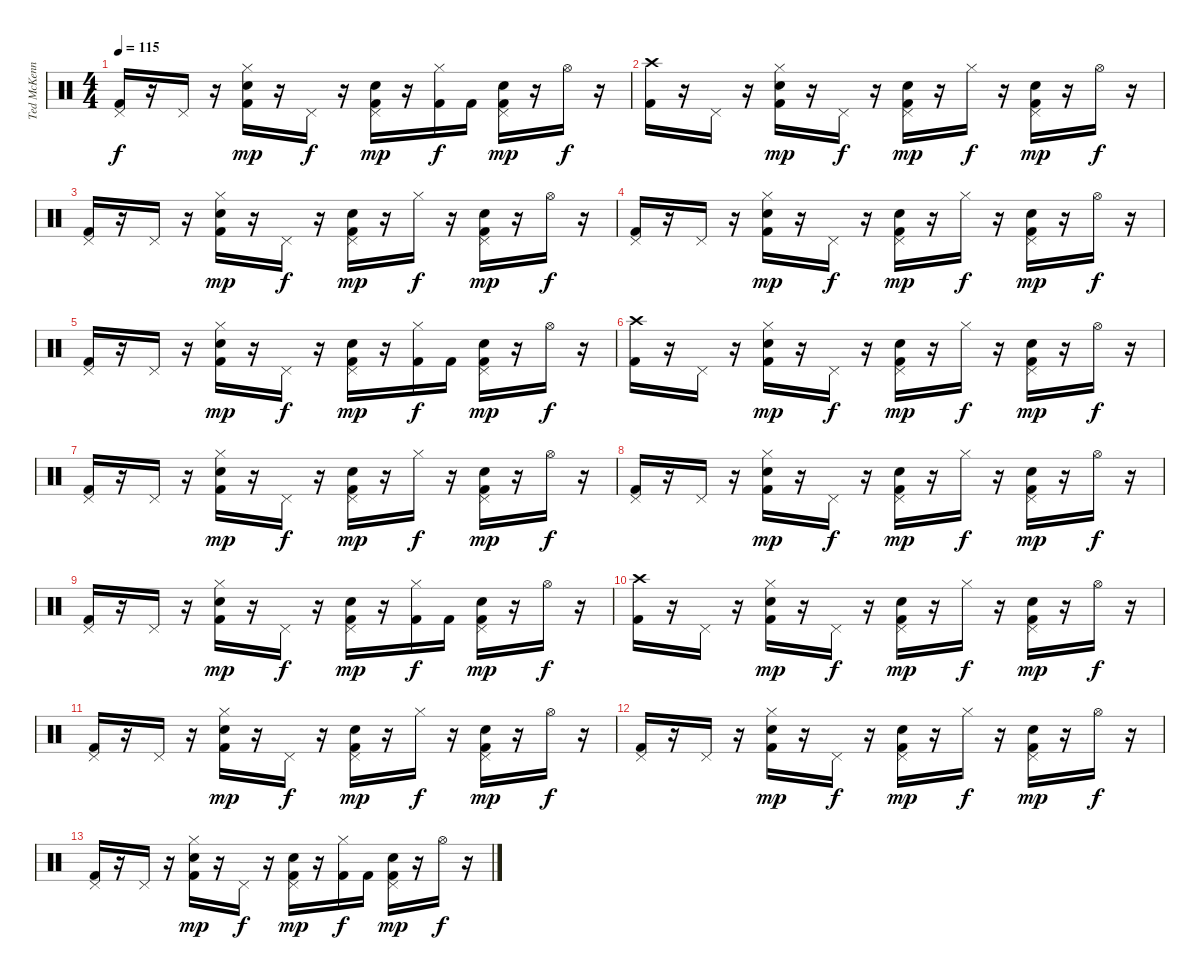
\track ("Ted McKenna" "Ted McKenn") {instrument percussion}
\staff {score}
\articulation defaults
\ts (4 4)
\tempo 115
\clef neutral
\ks c
("Pedal Hi-Hat (hit)" "Kick (hit) 2").16{dy f} r.16 "Pedal Hi-Hat (hit)".16 r.16 ("Electric Snare (hit)" "Hi-Hat (closed)" "Kick (hit) 2").16{dy mp} r.16 "Pedal Hi-Hat (hit)".16{dy f} r.16 ("Electric Snare (hit)" "Pedal Hi-Hat (hit)" "Kick (hit) 2").16{dy mp} r.16 ("Hi-Hat (closed)" "Kick (hit) 2").16{dy f} "Kick (hit) 2".16 ("Electric Snare (hit)" "Pedal Hi-Hat (hit)" "Kick (hit) 2").16{dy mp} r.16 "Hi-Hat (open)".16{dy f} r.16 |
("Crash high (hit)" "Kick (hit) 2").16 r.16 "Pedal Hi-Hat (hit)".16 r.16 ("Electric Snare (hit)" "Hi-Hat (closed)" "Kick (hit) 2").16{dy mp} r.16 "Pedal Hi-Hat (hit)".16{dy f} r.16 ("Electric Snare (hit)" "Pedal Hi-Hat (hit)" "Kick (hit) 2").16{dy mp} r.16 "Hi-Hat (closed)".16{dy f} r.16 ("Electric Snare (hit)" "Pedal Hi-Hat (hit)" "Kick (hit) 2").16{dy mp} r.16 "Hi-Hat (open)".16{dy f} r.16 |
("Pedal Hi-Hat (hit)" "Kick (hit) 2").16 r.16 "Pedal Hi-Hat (hit)".16 r.16 ("Electric Snare (hit)" "Hi-Hat (closed)" "Kick (hit) 2").16{dy mp} r.16 "Pedal Hi-Hat (hit)".16{dy f} r.16 ("Electric Snare (hit)" "Pedal Hi-Hat (hit)" "Kick (hit) 2").16{dy mp} r.16 "Hi-Hat (closed)".16{dy f} r.16 ("Electric Snare (hit)" "Pedal Hi-Hat (hit)" "Kick (hit) 2").16{dy mp} r.16 "Hi-Hat (open)".16{dy f} r.16 |
("Pedal Hi-Hat (hit)" "Kick (hit) 2").16 r.16 "Pedal Hi-Hat (hit)".16 r.16 ("Electric Snare (hit)" "Hi-Hat (closed)" "Kick (hit) 2").16{dy mp} r.16 "Pedal Hi-Hat (hit)".16{dy f} r.16 ("Electric Snare (hit)" "Pedal Hi-Hat (hit)" "Kick (hit) 2").16{dy mp} r.16 "Hi-Hat (closed)".16{dy f} r.16 ("Electric Snare (hit)" "Pedal Hi-Hat (hit)" "Kick (hit) 2").16{dy mp} r.16 "Hi-Hat (open)".16{dy f} r.16 |
("Pedal Hi-Hat (hit)" "Kick (hit) 2").16 r.16 "Pedal Hi-Hat (hit)".16 r.16 ("Electric Snare (hit)" "Hi-Hat (closed)" "Kick (hit) 2").16{dy mp} r.16 "Pedal Hi-Hat (hit)".16{dy f} r.16 ("Electric Snare (hit)" "Pedal Hi-Hat (hit)" "Kick (hit) 2").16{dy mp} r.16 ("Hi-Hat (closed)" "Kick (hit) 2").16{dy f} "Kick (hit) 2".16 ("Electric Snare (hit)" "Pedal Hi-Hat (hit)" "Kick (hit) 2").16{dy mp} r.16 "Hi-Hat (open)".16{dy f} r.16 |
("Crash high (hit)" "Kick (hit) 2").16 r.16 "Pedal Hi-Hat (hit)".16 r.16 ("Electric Snare (hit)" "Hi-Hat (closed)" "Kick (hit) 2").16{dy mp} r.16 "Pedal Hi-Hat (hit)".16{dy f} r.16 ("Electric Snare (hit)" "Pedal Hi-Hat (hit)" "Kick (hit) 2").16{dy mp} r.16 "Hi-Hat (closed)".16{dy f} r.16 ("Electric Snare (hit)" "Pedal Hi-Hat (hit)" "Kick (hit) 2").16{dy mp} r.16 "Hi-Hat (open)".16{dy f} r.16 |
("Pedal Hi-Hat (hit)" "Kick (hit) 2").16 r.16 "Pedal Hi-Hat (hit)".16 r.16 ("Electric Snare (hit)" "Hi-Hat (closed)" "Kick (hit) 2").16{dy mp} r.16 "Pedal Hi-Hat (hit)".16{dy f} r.16 ("Electric Snare (hit)" "Pedal Hi-Hat (hit)" "Kick (hit) 2").16{dy mp} r.16 "Hi-Hat (closed)".16{dy f} r.16 ("Electric Snare (hit)" "Pedal Hi-Hat (hit)" "Kick (hit) 2").16{dy mp} r.16 "Hi-Hat (open)".16{dy f} r.16 |
("Pedal Hi-Hat (hit)" "Kick (hit) 2").16 r.16 "Pedal Hi-Hat (hit)".16 r.16 ("Electric Snare (hit)" "Hi-Hat (closed)" "Kick (hit) 2").16{dy mp} r.16 "Pedal Hi-Hat (hit)".16{dy f} r.16 ("Electric Snare (hit)" "Pedal Hi-Hat (hit)" "Kick (hit) 2").16{dy mp} r.16 "Hi-Hat (closed)".16{dy f} r.16 ("Electric Snare (hit)" "Pedal Hi-Hat (hit)" "Kick (hit) 2").16{dy mp} r.16 "Hi-Hat (open)".16{dy f} r.16 |
("Pedal Hi-Hat (hit)" "Kick (hit) 2").16 r.16 "Pedal Hi-Hat (hit)".16 r.16 ("Electric Snare (hit)" "Hi-Hat (closed)" "Kick (hit) 2").16{dy mp} r.16 "Pedal Hi-Hat (hit)".16{dy f} r.16 ("Electric Snare (hit)" "Pedal Hi-Hat (hit)" "Kick (hit) 2").16{dy mp} r.16 ("Hi-Hat (closed)" "Kick (hit) 2").16{dy f} "Kick (hit) 2".16 ("Electric Snare (hit)" "Pedal Hi-Hat (hit)" "Kick (hit) 2").16{dy mp} r.16 "Hi-Hat (open)".16{dy f} r.16 |
("Crash high (hit)" "Kick (hit) 2").16 r.16 "Pedal Hi-Hat (hit)".16 r.16 ("Electric Snare (hit)" "Hi-Hat (closed)" "Kick (hit) 2").16{dy mp} r.16 "Pedal Hi-Hat (hit)".16{dy f} r.16 ("Electric Snare (hit)" "Pedal Hi-Hat (hit)" "Kick (hit) 2").16{dy mp} r.16 "Hi-Hat (closed)".16{dy f} r.16 ("Electric Snare (hit)" "Pedal Hi-Hat (hit)" "Kick (hit) 2").16{dy mp} r.16 "Hi-Hat (open)".16{dy f} r.16 |
("Pedal Hi-Hat (hit)" "Kick (hit) 2").16 r.16 "Pedal Hi-Hat (hit)".16 r.16 ("Electric Snare (hit)" "Hi-Hat (closed)" "Kick (hit) 2").16{dy mp} r.16 "Pedal Hi-Hat (hit)".16{dy f} r.16 ("Electric Snare (hit)" "Pedal Hi-Hat (hit)" "Kick (hit) 2").16{dy mp} r.16 "Hi-Hat (closed)".16{dy f} r.16 ("Electric Snare (hit)" "Pedal Hi-Hat (hit)" "Kick (hit) 2").16{dy mp} r.16 "Hi-Hat (open)".16{dy f} r.16 |
("Pedal Hi-Hat (hit)" "Kick (hit) 2").16 r.16 "Pedal Hi-Hat (hit)".16 r.16 ("Electric Snare (hit)" "Hi-Hat (closed)" "Kick (hit) 2").16{dy mp} r.16 "Pedal Hi-Hat (hit)".16{dy f} r.16 ("Electric Snare (hit)" "Pedal Hi-Hat (hit)" "Kick (hit) 2").16{dy mp} r.16 "Hi-Hat (closed)".16{dy f} r.16 ("Electric Snare (hit)" "Pedal Hi-Hat (hit)" "Kick (hit) 2").16{dy mp} r.16 "Hi-Hat (open)".16{dy f} r.16 |
("Pedal Hi-Hat (hit)" "Kick (hit) 2").16 r.16 "Pedal Hi-Hat (hit)".16 r.16 ("Electric Snare (hit)" "Hi-Hat (closed)" "Kick (hit) 2").16{dy mp} r.16 "Pedal Hi-Hat (hit)".16{dy f} r.16 ("Electric Snare (hit)" "Pedal Hi-Hat (hit)" "Kick (hit) 2").16{dy mp} r.16 ("Hi-Hat (closed)" "Kick (hit) 2").16{dy f} "Kick (hit) 2".16 ("Electric Snare (hit)" "Pedal Hi-Hat (hit)" "Kick (hit) 2").16{dy mp} r.16 "Hi-Hat (open)".16{dy f} r.16
